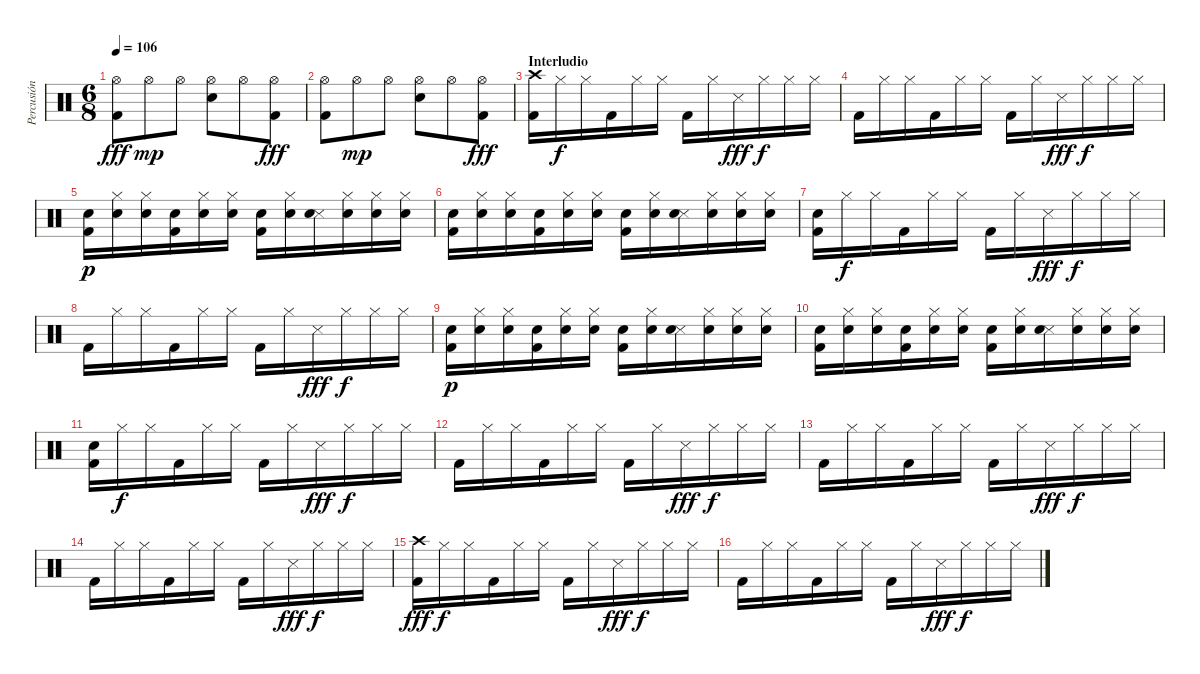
\track ("Percusión" "Percusión") {instrument percussion}
\staff {score}
\articulation defaults
\ts (6 8)
\tempo 106
\clef neutral
\ks c
("Hi-Hat (open)" "Kick (hit) 2").8{dy fff} "Hi-Hat (open)".8{dy mp} "Hi-Hat (open)".8 ("Hi-Hat (open)" "Snare (hit) 2").8 "Hi-Hat (open)".8 ("Hi-Hat (open)" "Kick (hit) 2").8{dy fff} |
("Hi-Hat (open)" "Kick (hit) 2").8 "Hi-Hat (open)".8{dy mp} "Hi-Hat (open)".8 ("Hi-Hat (open)" "Snare (hit) 2").8 "Hi-Hat (open)".8 ("Hi-Hat (open)" "Kick (hit) 2").8{dy fff} |
\section ("" "Interludio")
("Kick (hit) 2" "Crash high (hit)").16 "Hi-Hat (closed)".16{dy f} "Hi-Hat (closed)".16 "Kick (hit) 2".16 "Hi-Hat (closed)".16 "Hi-Hat (closed)".16 "Kick (hit) 2".16 "Hi-Hat (closed)".16 "Snare (side stick) 3".16{dy fff} "Hi-Hat (closed)".16{dy f} "Hi-Hat (closed)".16 "Hi-Hat (closed)".16 |
"Kick (hit) 2".16 "Hi-Hat (closed)".16 "Hi-Hat (closed)".16 "Kick (hit) 2".16 "Hi-Hat (closed)".16 "Hi-Hat (closed)".16 "Kick (hit) 2".16 "Hi-Hat (closed)".16 "Snare (side stick) 3".16{dy fff} "Hi-Hat (closed)".16{dy f} "Hi-Hat (closed)".16 "Hi-Hat (closed)".16 |
("Kick (hit) 2" "Hand Clap (hit)").16{dy p} ("Hi-Hat (closed)" "Hand Clap (hit)").16 ("Hi-Hat (closed)" "Hand Clap (hit)").16 ("Kick (hit) 2" "Hand Clap (hit)").16 ("Hi-Hat (closed)" "Hand Clap (hit)").16 ("Hi-Hat (closed)" "Hand Clap (hit)").16 ("Kick (hit) 2" "Hand Clap (hit)").16 ("Hi-Hat (closed)" "Hand Clap (hit)").16 ("Snare (side stick) 3" "Hand Clap (hit)").16 ("Hi-Hat (closed)" "Hand Clap (hit)").16 ("Hi-Hat (closed)" "Hand Clap (hit)").16 ("Hi-Hat (closed)" "Hand Clap (hit)").16 |
("Kick (hit) 2" "Hand Clap (hit)").16 ("Hi-Hat (closed)" "Hand Clap (hit)").16 ("Hi-Hat (closed)" "Hand Clap (hit)").16 ("Kick (hit) 2" "Hand Clap (hit)").16 ("Hi-Hat (closed)" "Hand Clap (hit)").16 ("Hi-Hat (closed)" "Hand Clap (hit)").16 ("Kick (hit) 2" "Hand Clap (hit)").16 ("Hi-Hat (closed)" "Hand Clap (hit)").16 ("Snare (side stick) 3" "Hand Clap (hit)").16 ("Hi-Hat (closed)" "Hand Clap (hit)").16 ("Hi-Hat (closed)" "Hand Clap (hit)").16 ("Hi-Hat (closed)" "Hand Clap (hit)").16 |
("Kick (hit) 2" "Hand Clap (hit)").16 "Hi-Hat (closed)".16{dy f} "Hi-Hat (closed)".16 "Kick (hit) 2".16 "Hi-Hat (closed)".16 "Hi-Hat (closed)".16 "Kick (hit) 2".16 "Hi-Hat (closed)".16 "Snare (side stick) 3".16{dy fff} "Hi-Hat (closed)".16{dy f} "Hi-Hat (closed)".16 "Hi-Hat (closed)".16 |
"Kick (hit) 2".16 "Hi-Hat (closed)".16 "Hi-Hat (closed)".16 "Kick (hit) 2".16 "Hi-Hat (closed)".16 "Hi-Hat (closed)".16 "Kick (hit) 2".16 "Hi-Hat (closed)".16 "Snare (side stick) 3".16{dy fff} "Hi-Hat (closed)".16{dy f} "Hi-Hat (closed)".16 "Hi-Hat (closed)".16 |
("Kick (hit) 2" "Hand Clap (hit)").16{dy p} ("Hi-Hat (closed)" "Hand Clap (hit)").16 ("Hi-Hat (closed)" "Hand Clap (hit)").16 ("Kick (hit) 2" "Hand Clap (hit)").16 ("Hi-Hat (closed)" "Hand Clap (hit)").16 ("Hi-Hat (closed)" "Hand Clap (hit)").16 ("Kick (hit) 2" "Hand Clap (hit)").16 ("Hi-Hat (closed)" "Hand Clap (hit)").16 ("Snare (side stick) 3" "Hand Clap (hit)").16 ("Hi-Hat (closed)" "Hand Clap (hit)").16 ("Hi-Hat (closed)" "Hand Clap (hit)").16 ("Hi-Hat (closed)" "Hand Clap (hit)").16 |
("Kick (hit) 2" "Hand Clap (hit)").16 ("Hi-Hat (closed)" "Hand Clap (hit)").16 ("Hi-Hat (closed)" "Hand Clap (hit)").16 ("Kick (hit) 2" "Hand Clap (hit)").16 ("Hi-Hat (closed)" "Hand Clap (hit)").16 ("Hi-Hat (closed)" "Hand Clap (hit)").16 ("Kick (hit) 2" "Hand Clap (hit)").16 ("Hi-Hat (closed)" "Hand Clap (hit)").16 ("Snare (side stick) 3" "Hand Clap (hit)").16 ("Hi-Hat (closed)" "Hand Clap (hit)").16 ("Hi-Hat (closed)" "Hand Clap (hit)").16 ("Hi-Hat (closed)" "Hand Clap (hit)").16 |
("Kick (hit) 2" "Hand Clap (hit)").16 "Hi-Hat (closed)".16{dy f} "Hi-Hat (closed)".16 "Kick (hit) 2".16 "Hi-Hat (closed)".16 "Hi-Hat (closed)".16 "Kick (hit) 2".16 "Hi-Hat (closed)".16 "Snare (side stick) 3".16{dy fff} "Hi-Hat (closed)".16{dy f} "Hi-Hat (closed)".16 "Hi-Hat (closed)".16 |
"Kick (hit) 2".16 "Hi-Hat (closed)".16 "Hi-Hat (closed)".16 "Kick (hit) 2".16 "Hi-Hat (closed)".16 "Hi-Hat (closed)".16 "Kick (hit) 2".16 "Hi-Hat (closed)".16 "Snare (side stick) 3".16{dy fff} "Hi-Hat (closed)".16{dy f} "Hi-Hat (closed)".16 "Hi-Hat (closed)".16 |
"Kick (hit) 2".16 "Hi-Hat (closed)".16 "Hi-Hat (closed)".16 "Kick (hit) 2".16 "Hi-Hat (closed)".16 "Hi-Hat (closed)".16 "Kick (hit) 2".16 "Hi-Hat (closed)".16 "Snare (side stick) 3".16{dy fff} "Hi-Hat (closed)".16{dy f} "Hi-Hat (closed)".16 "Hi-Hat (closed)".16 |
"Kick (hit) 2".16 "Hi-Hat (closed)".16 "Hi-Hat (closed)".16 "Kick (hit) 2".16 "Hi-Hat (closed)".16 "Hi-Hat (closed)".16 "Kick (hit) 2".16 "Hi-Hat (closed)".16 "Snare (side stick) 3".16{dy fff} "Hi-Hat (closed)".16{dy f} "Hi-Hat (closed)".16 "Hi-Hat (closed)".16 |
("Kick (hit) 2" "Crash high (hit)").16{dy fff} "Hi-Hat (closed)".16{dy f} "Hi-Hat (closed)".16 "Kick (hit) 2".16 "Hi-Hat (closed)".16 "Hi-Hat (closed)".16 "Kick (hit) 2".16 "Hi-Hat (closed)".16 "Snare (side stick) 3".16{dy fff} "Hi-Hat (closed)".16{dy f} "Hi-Hat (closed)".16 "Hi-Hat (closed)".16 |
"Kick (hit) 2".16 "Hi-Hat (closed)".16 "Hi-Hat (closed)".16 "Kick (hit) 2".16 "Hi-Hat (closed)".16 "Hi-Hat (closed)".16 "Kick (hit) 2".16 "Hi-Hat (closed)".16 "Snare (side stick) 3".16{dy fff} "Hi-Hat (closed)".16{dy f} "Hi-Hat (closed)".16 "Hi-Hat (closed)".16
